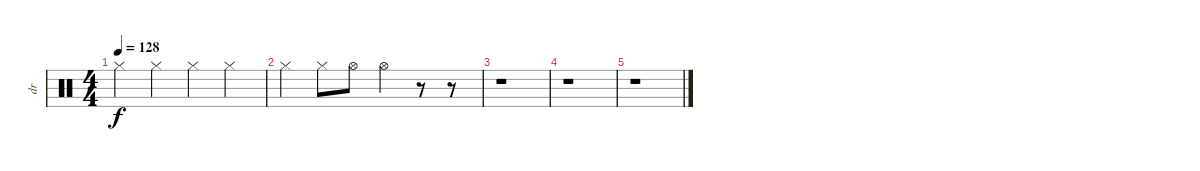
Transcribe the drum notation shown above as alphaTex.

\track ("dr" "dr") {instrument percussion}
\staff {score}
\articulation defaults
\ts (4 4)
\tempo 128
\clef neutral
\ks c "Hi-Hat (closed)".4{dy f} "Hi-Hat (closed)".4 "Hi-Hat (closed)".4 "Hi-Hat (closed)".4
|
"Hi-Hat (closed)".4 "Hi-Hat (closed)".8 "Hi-Hat (open)".8 "Hi-Hat (open)".4 r.8 r.8 |
r.1 |
r.1 |
r.1
